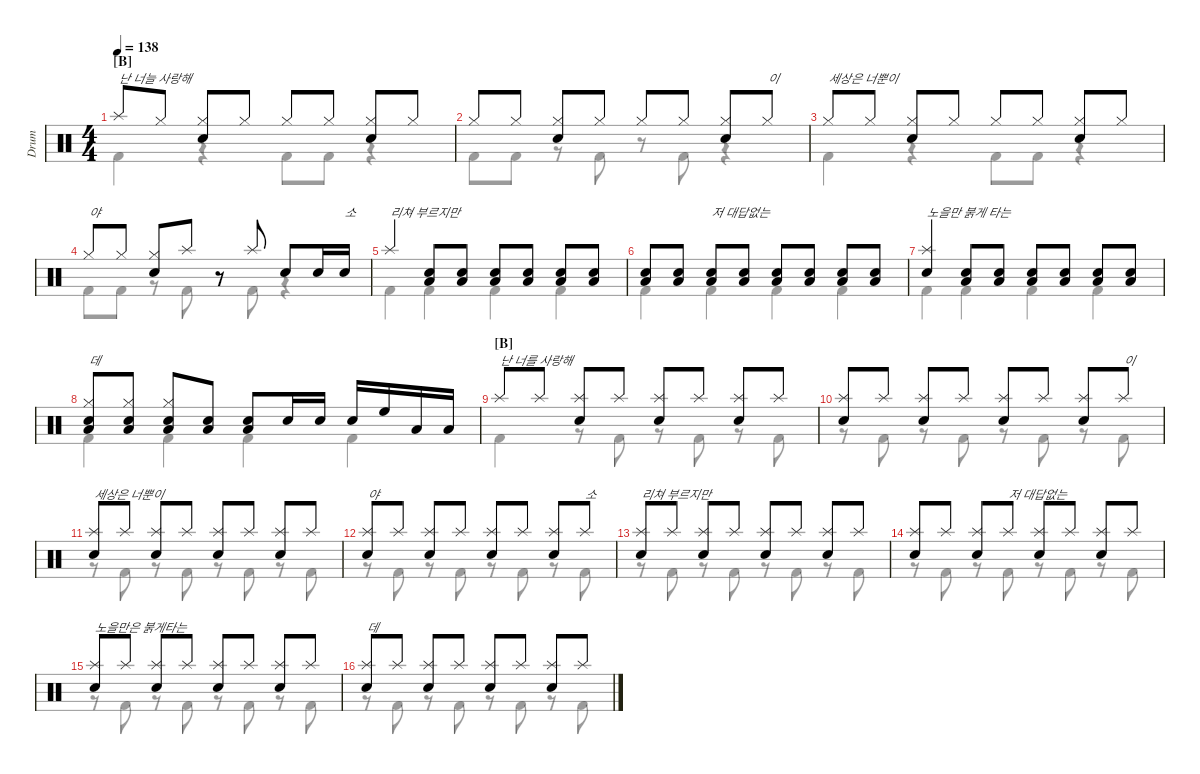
\defaultSystemsLayout 4
\hideDynamics
\bracketExtendMode nobrackets
\track ("Drumkit" "Drum") {instrument percussion}
\staff {score}
\articulation defaults
\voice
\ts (4 4)
\section ("B" "")
\tempo 138
\clef neutral
\ks c "Splash (hit)".8{txt "난 너늘 사랑해" dy mf beam Up} "Hi-Hat (closed)".8{beam Up}
("Hi-Hat (closed)" "Snare (hit) 2").8{beam Up} "Hi-Hat (closed)".8{beam Up} "Hi-Hat (closed)".8{beam Up} "Hi-Hat (closed)".8{beam Up} ("Hi-Hat (closed)" "Snare (hit) 2").8{beam Up} "Hi-Hat (closed)".8{beam Up} |
"Hi-Hat (closed)".8{beam Up} "Hi-Hat (closed)".8{beam Up} ("Hi-Hat (closed)" "Snare (hit) 2").8{beam Up} "Hi-Hat (closed)".8{beam Up} "Hi-Hat (closed)".8{beam Up} "Hi-Hat (closed)".8{beam Up} ("Hi-Hat (closed)" "Snare (hit) 2").8{beam Up} "Hi-Hat (closed)".8{txt "이" beam Up} |
"Hi-Hat (closed)".8{txt "세상은 너뿐이" beam Up} "Hi-Hat (closed)".8{beam Up} ("Hi-Hat (closed)" "Snare (hit) 2").8{beam Up} "Hi-Hat (closed)".8{beam Up} "Hi-Hat (closed)".8{beam Up} "Hi-Hat (closed)".8{beam Up} ("Hi-Hat (closed)" "Snare (hit) 2").8{beam Up} "Hi-Hat (closed)".8{beam Up} |
"Hi-Hat (closed)".8{txt "야" beam Up} "Hi-Hat (closed)".8{beam Up} ("Hi-Hat (closed)" "Snare (hit) 2").8{beam Up} "Splash (hit)".8{beam Up} r.8{beam Up} "Splash (hit)".8{beam Up} "Snare (hit) 2".8{beam Up} "Snare (hit) 2".16{beam Up} "Snare (hit) 2".16{txt "소" beam Up} |
"Splash (hit)".4{txt "리쳐 부르지만" beam Up} ("Snare (hit) 2" "Low Tom (hit)").8{beam Up} ("Snare (hit) 2" "Low Tom (hit)").8{beam Up} ("Snare (hit) 2" "Low Tom (hit)").8{beam Up} ("Snare (hit) 2" "Low Tom (hit)").8{beam Up} ("Snare (hit) 2" "Low Tom (hit)").8{beam Up} ("Snare (hit) 2" "Low Tom (hit)").8{beam Up} |
("Low Tom (hit)" "Snare (hit) 2").8{beam Up} ("Low Tom (hit)" "Snare (hit) 2").8{beam Up} ("Snare (hit) 2" "Low Tom (hit)").8{txt "저 대답없는" beam Up} ("Low Tom (hit)" "Snare (hit) 2").8{beam Up} ("Low Tom (hit)" "Snare (hit) 2").8{beam Up} ("Snare (hit) 2" "Low Tom (hit)").8{beam Up} ("Snare (hit) 2" "Low Tom (hit)").8{beam Up} ("Snare (hit) 2" "Low Tom (hit)").8{beam Up} |
("Splash (hit)" "Snare (hit) 2").4{txt "노을만 붉게 타는" beam Up} ("Snare (hit) 2" "Low Tom (hit)").8{beam Up} ("Snare (hit) 2" "Low Tom (hit)").8{beam Up} ("Snare (hit) 2" "Low Tom (hit)").8{beam Up} ("Snare (hit) 2" "Low Tom (hit)").8{beam Up} ("Snare (hit) 2" "Low Tom (hit)").8{beam Up} ("Snare (hit) 2" "Low Tom (hit)").8{beam Up} |
("Hi-Hat (closed)" "Snare (hit) 2" "Low Tom (hit)").8{txt "데" beam Up} ("Hi-Hat (closed)" "Snare (hit) 2" "Low Tom (hit)").8{beam Up} ("Hi-Hat (closed)" "Snare (hit) 2" "Low Tom (hit)").8{beam Up} ("Snare (hit) 2" "Low Tom (hit)").8{beam Up} ("Snare (hit) 2" "Low Tom (hit)").8{beam Up} "Snare (hit) 2".16{beam Up} "Snare (hit) 2".16{beam Up} "Snare (hit) 2".16{beam Up} "High Floor Tom (hit)".16{beam Up} "Low Tom (hit)".16{beam Up} "Low Tom (hit)".16{beam Up} |
\section ("B" "")
"Splash (hit)".8{txt "난 너를 사랑해" beam Up} "Splash (hit)".8{beam Up} ("Splash (hit)" "Snare (hit) 2").8{beam Up} "Splash (hit)".8{beam Up} ("Splash (hit)" "Snare (hit) 2").8{beam Up} "Splash (hit)".8{beam Up} ("Splash (hit)" "Snare (hit) 2").8{beam Up} "Splash (hit)".8{beam Up} |
("Splash (hit)" "Snare (hit) 2").8{beam Up} "Splash (hit)".8{beam Up} ("Splash (hit)" "Snare (hit) 2").8{beam Up} "Splash (hit)".8{beam Up} ("Splash (hit)" "Snare (hit) 2").8{beam Up} "Splash (hit)".8{beam Up} ("Splash (hit)" "Snare (hit) 2").8{beam Up} "Splash (hit)".8{txt "이" beam Up} |
("Splash (hit)" "Snare (hit) 2").8{txt "세상은 너뿐이" beam Up} "Splash (hit)".8{beam Up} ("Splash (hit)" "Snare (hit) 2").8{beam Up} "Splash (hit)".8{beam Up} ("Splash (hit)" "Snare (hit) 2").8{beam Up} "Splash (hit)".8{beam Up} ("Splash (hit)" "Snare (hit) 2").8{beam Up} "Splash (hit)".8{beam Up} |
("Splash (hit)" "Snare (hit) 2").8{txt "야" beam Up} "Splash (hit)".8{beam Up} ("Splash (hit)" "Snare (hit) 2").8{beam Up} "Splash (hit)".8{beam Up} ("Splash (hit)" "Snare (hit) 2").8{beam Up} "Splash (hit)".8{beam Up} ("Splash (hit)" "Snare (hit) 2").8{beam Up} "Splash (hit)".8{txt "소" beam Up} |
("Splash (hit)" "Snare (hit) 2").8{txt "리쳐 부르지만" beam Up} "Splash (hit)".8{beam Up} ("Splash (hit)" "Snare (hit) 2").8{beam Up} "Splash (hit)".8{beam Up} ("Splash (hit)" "Snare (hit) 2").8{beam Up} "Splash (hit)".8{beam Up} ("Splash (hit)" "Snare (hit) 2").8{beam Up} "Splash (hit)".8{beam Up} |
("Splash (hit)" "Snare (hit) 2").8{beam Up} "Splash (hit)".8{beam Up} ("Splash (hit)" "Snare (hit) 2").8{beam Up} "Splash (hit)".8{txt "저 대답없는" beam Up} ("Splash (hit)" "Snare (hit) 2").8{beam Up} "Splash (hit)".8{beam Up} ("Splash (hit)" "Snare (hit) 2").8{beam Up} "Splash (hit)".8{beam Up} |
("Splash (hit)" "Snare (hit) 2").8{txt "노을만은 붉게타는" beam Up} "Splash (hit)".8{beam Up} ("Splash (hit)" "Snare (hit) 2").8{beam Up} "Splash (hit)".8{beam Up} ("Splash (hit)" "Snare (hit) 2").8{beam Up} "Splash (hit)".8{beam Up} ("Splash (hit)" "Snare (hit) 2").8{beam Up} "Splash (hit)".8{beam Up} |
("Splash (hit)" "Snare (hit) 2").8{txt "데" beam Up} "Splash (hit)".8{beam Up} ("Splash (hit)" "Snare (hit) 2").8{beam Up} "Splash (hit)".8{beam Up} ("Splash (hit)" "Snare (hit) 2").8{beam Up} "Splash (hit)".8{beam Up} ("Splash (hit)" "Snare (hit) 2").8{beam Up} "Splash (hit)".8{beam Up}
\voice
\clef neutral
\ottava regular
\simile none
\ks c
|
|
|
|
|
|
|
|
|
|
|
|
|
|
|
\voice
\clef neutral
\ottava regular
\simile none
\ks c "Kick (hit) 2".4{dy mf beam Down}
r.4{beam Down} "Kick (hit) 2".8{beam Down} "Kick (hit) 2".8{beam Down} r.4{beam Down} |
"Kick (hit) 2".8{beam Down} "Kick (hit) 2".8{beam Down} r.8{beam Down} "Kick (hit) 2".8{beam Down} r.8{beam Down} "Kick (hit) 2".8{beam Down} r.4{beam Down} |
"Kick (hit) 2".4{beam Down} r.4{beam Down} "Kick (hit) 2".8{beam Down} "Kick (hit) 2".8{beam Down} r.4{beam Down} |
"Kick (hit) 2".8{beam Down} "Kick (hit) 2".8{beam Down} r.8{beam Down} "Kick (hit) 2".8{beam Down} r.8{beam Down} "Kick (hit) 2".8{beam Down} r.4{beam Down} |
"Kick (hit) 2".4{beam Down} "Kick (hit) 2".4{beam Down} "Kick (hit) 2".4{beam Down} "Kick (hit) 2".4{beam Down} |
"Kick (hit) 2".4{beam Down} "Kick (hit) 2".4{beam Down} "Kick (hit) 2".4{beam Down} "Kick (hit) 2".4{beam Down} |
"Kick (hit) 2".4{beam Down} "Kick (hit) 2".4{beam Down} "Kick (hit) 2".4{beam Down} "Kick (hit) 2".4{beam Down} |
"Kick (hit) 2".4{beam Down} "Kick (hit) 2".4{beam Down} "Kick (hit) 2".4{beam Down} "Kick (hit) 2".4{beam Down} |
"Kick (hit) 2".4{beam Down} r.8{beam Down} "Kick (hit) 2".8{beam Down} r.8{beam Down} "Kick (hit) 2".8{beam Down} r.8{beam Down} "Kick (hit) 2".8{beam Down} |
r.8{beam Down} "Kick (hit) 2".8{beam Down} r.8{beam Down} "Kick (hit) 2".8{beam Down} r.8{beam Down} "Kick (hit) 2".8{beam Down} r.8{beam Down} "Kick (hit) 2".8{beam Down} |
r.8{beam Down} "Kick (hit) 2".8{beam Down} r.8{beam Down} "Kick (hit) 2".8{beam Down} r.8{beam Down} "Kick (hit) 2".8{beam Down} r.8{beam Down} "Kick (hit) 2".8{beam Down} |
r.8{beam Down} "Kick (hit) 2".8{beam Down} r.8{beam Down} "Kick (hit) 2".8{beam Down} r.8{beam Down} "Kick (hit) 2".8{beam Down} r.8{beam Down} "Kick (hit) 2".8{beam Down} |
r.8{beam Down} "Kick (hit) 2".8{beam Down} r.8{beam Down} "Kick (hit) 2".8{beam Down} r.8{beam Down} "Kick (hit) 2".8{beam Down} r.8{beam Down} "Kick (hit) 2".8{beam Down} |
r.8{beam Down} "Kick (hit) 2".8{beam Down} r.8{beam Down} "Kick (hit) 2".8{beam Down} r.8{beam Down} "Kick (hit) 2".8{beam Down} r.8{beam Down} "Kick (hit) 2".8{beam Down} |
r.8{beam Down} "Kick (hit) 2".8{beam Down} r.8{beam Down} "Kick (hit) 2".8{beam Down} r.8{beam Down} "Kick (hit) 2".8{beam Down} r.8{beam Down} "Kick (hit) 2".8{beam Down} |
r.8{beam Down} "Kick (hit) 2".8{beam Down} r.8{beam Down} "Kick (hit) 2".8{beam Down} r.8{beam Down} "Kick (hit) 2".8{beam Down} r.8{beam Down} "Kick (hit) 2".8{beam Down}
